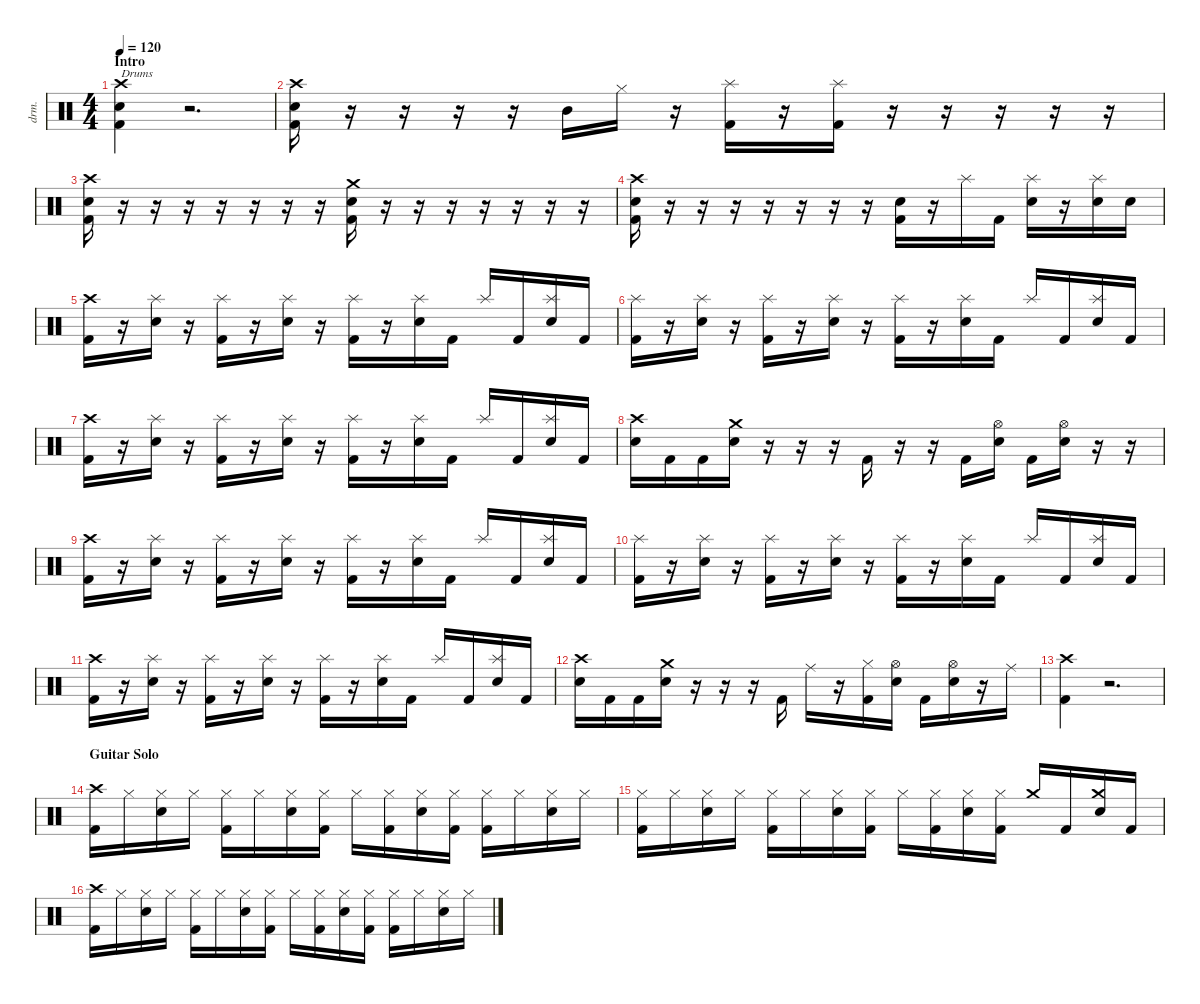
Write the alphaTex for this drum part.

\defaultSystemsLayout 4
\hideDynamics
\bracketExtendMode nobrackets
\track ("Drums" "drm.") {instrument percussion}
\staff {score}
\articulation defaults
\ts (4 4)
\section ("" "Intro")
\tempo 120
\clef neutral
\ks c
("Crash high (hit)" "Snare (hit) 2" "Kick (hit) 2").4{txt "Drums" dy f beam Down} r.2{d beam Down} |
("Crash high (hit)" "Snare (hit) 2" "Kick (hit) 2").16{dy fff beam Down} r.16{beam Down} r.16{beam Down} r.16{beam Down} r.16{beam Down} "Mid Tom (hit)".16{dy f beam Down} "Hi-Hat (closed)".16{dy fff beam Down} r.16{beam Down} ("Splash (hit)" "Kick (hit) 2").16{beam Down} r.16{beam Down} ("Splash (hit)" "Kick (hit) 2").16{beam Down} r.16{beam Down} r.16{beam Down} r.16{beam Down} r.16{beam Down} r.16{beam Down} |
("Crash high (hit)" "Snare (hit) 2" "Kick (hit) 2").16{beam Down} r.16{beam Down} r.16{beam Down} r.16{beam Down} r.16{beam Down} r.16{beam Down} r.16{beam Down} r.16{beam Down} ("Crash medium (hit)" "Snare (hit) 2" "Kick (hit) 2").16{beam Down} r.16{beam Down} r.16{beam Down} r.16{beam Down} r.16{beam Down} r.16{beam Down} r.16{beam Down} r.16{beam Down} |
("Crash high (hit)" "Snare (hit) 2" "Kick (hit) 2").16{dy f beam Down} r.16{beam Down} r.16{beam Down} r.16{beam Down} r.16{beam Down} r.16{beam Down} r.16{beam Down} r.16{beam Down} ("Snare (hit) 2" "Kick (hit) 2").16{beam Down} r.16{beam Down} "Splash (hit)".16{dy fff beam Down} "Kick (hit) 2".16{dy f beam Down} ("Splash (hit)" "Snare (hit) 2").16{dy fff beam Down} r.16{beam Down} ("Splash (hit)" "Snare (hit) 2").16{beam Down} "Snare (hit) 2".16{dy f beam Down} |
("Crash high (hit)" "Kick (hit) 2").16{dy fff beam Down} r.16{beam Down} ("Splash (hit)" "Snare (hit) 2").16{beam Down} r.16{beam Down} ("Splash (hit)" "Kick (hit) 2").16{beam Down} r.16{beam Down} ("Splash (hit)" "Snare (hit) 2").16{beam Down} r.16{beam Down} ("Splash (hit)" "Kick (hit) 2").16{beam Down} r.16{beam Down} ("Splash (hit)" "Snare (hit) 2").16{beam Down} "Kick (hit) 2".16{dy f beam Down} "Splash (hit)".16{dy fff beam Up} "Kick (hit) 2".16{dy f beam Up} ("Splash (hit)" "Snare (hit) 2").16{dy fff beam Up} "Kick (hit) 2".16{dy f beam Up} |
("Splash (hit)" "Kick (hit) 2").16{dy fff beam Down} r.16{beam Down} ("Splash (hit)" "Snare (hit) 2").16{beam Down} r.16{beam Down} ("Splash (hit)" "Kick (hit) 2").16{beam Down} r.16{beam Down} ("Splash (hit)" "Snare (hit) 2").16{beam Down} r.16{beam Down} ("Splash (hit)" "Kick (hit) 2").16{beam Down} r.16{beam Down} ("Splash (hit)" "Snare (hit) 2").16{beam Down} "Kick (hit) 2".16{dy f beam Down} "Splash (hit)".16{dy fff beam Up} "Kick (hit) 2".16{dy f beam Up} ("Splash (hit)" "Snare (hit) 2").16{dy fff beam Up} "Kick (hit) 2".16{dy f beam Up} |
("Crash high (hit)" "Kick (hit) 2").16{dy fff beam Down} r.16{beam Down} ("Splash (hit)" "Snare (hit) 2").16{beam Down} r.16{beam Down} ("Splash (hit)" "Kick (hit) 2").16{beam Down} r.16{beam Down} ("Splash (hit)" "Snare (hit) 2").16{beam Down} r.16{beam Down} ("Splash (hit)" "Kick (hit) 2").16{beam Down} r.16{beam Down} ("Splash (hit)" "Snare (hit) 2").16{beam Down} "Kick (hit) 2".16{dy f beam Down} "Splash (hit)".16{dy fff beam Up} "Kick (hit) 2".16{dy f beam Up} ("Splash (hit)" "Snare (hit) 2").16{dy fff beam Up} "Kick (hit) 2".16{dy f beam Up} |
("Crash high (hit)" "Snare (hit) 2").16{dy fff beam Down} "Kick (hit) 2".16{dy f beam Down} "Kick (hit) 2".16{beam Down} ("Crash medium (hit)" "Snare (hit) 2").16{dy fff beam Down} r.16{beam Down} r.16{beam Down} r.16{beam Down} "Kick (hit) 2".16{dy f beam Up} r.16{beam Down} r.16{beam Down} "Kick (hit) 2".16{beam Down} ("Hi-Hat (open)" "Snare (hit) 2").16{dy fff beam Down} "Kick (hit) 2".16{dy f beam Down} ("Hi-Hat (open)" "Snare (hit) 2").16{dy fff beam Down} r.16{beam Down} r.16{beam Down} |
("Crash high (hit)" "Kick (hit) 2").16{beam Down} r.16{beam Down} ("Splash (hit)" "Snare (hit) 2").16{beam Down} r.16{beam Down} ("Splash (hit)" "Kick (hit) 2").16{beam Down} r.16{beam Down} ("Splash (hit)" "Snare (hit) 2").16{beam Down} r.16{beam Down} ("Splash (hit)" "Kick (hit) 2").16{beam Down} r.16{beam Down} ("Splash (hit)" "Snare (hit) 2").16{beam Down} "Kick (hit) 2".16{dy f beam Down} "Splash (hit)".16{dy fff beam Up} "Kick (hit) 2".16{dy f beam Up} ("Splash (hit)" "Snare (hit) 2").16{dy fff beam Up} "Kick (hit) 2".16{dy f beam Up} |
("Splash (hit)" "Kick (hit) 2").16{dy fff beam Down} r.16{beam Down} ("Splash (hit)" "Snare (hit) 2").16{beam Down} r.16{beam Down} ("Splash (hit)" "Kick (hit) 2").16{beam Down} r.16{beam Down} ("Splash (hit)" "Snare (hit) 2").16{beam Down} r.16{beam Down} ("Splash (hit)" "Kick (hit) 2").16{beam Down} r.16{beam Down} ("Splash (hit)" "Snare (hit) 2").16{beam Down} "Kick (hit) 2".16{dy f beam Down} "Splash (hit)".16{dy fff beam Up} "Kick (hit) 2".16{dy f beam Up} ("Splash (hit)" "Snare (hit) 2").16{dy fff beam Up} "Kick (hit) 2".16{dy f beam Up} |
("Crash high (hit)" "Kick (hit) 2").16{dy fff beam Down} r.16{beam Down} ("Splash (hit)" "Snare (hit) 2").16{beam Down} r.16{beam Down} ("Splash (hit)" "Kick (hit) 2").16{beam Down} r.16{beam Down} ("Splash (hit)" "Snare (hit) 2").16{beam Down} r.16{beam Down} ("Splash (hit)" "Kick (hit) 2").16{beam Down} r.16{beam Down} ("Splash (hit)" "Snare (hit) 2").16{beam Down} "Kick (hit) 2".16{dy f beam Down} "Splash (hit)".16{dy fff beam Up} "Kick (hit) 2".16{dy f beam Up} ("Splash (hit)" "Snare (hit) 2").16{dy fff beam Up} "Kick (hit) 2".16{dy f beam Up} |
("Crash high (hit)" "Snare (hit) 2").16{dy fff beam Down} "Kick (hit) 2".16{dy f beam Down} "Kick (hit) 2".16{beam Down} ("Crash medium (hit)" "Snare (hit) 2").16{dy fff beam Down} r.16{beam Down} r.16{beam Down} r.16{beam Down} "Kick (hit) 2".16{dy f beam Up} "Ride (middle)".16{dy fff beam Down} r.16{beam Down} ("Hi-Hat (closed)" "Kick (hit) 2").16{beam Down} ("Hi-Hat (open)" "Snare (hit) 2").16{beam Down} "Kick (hit) 2".16{dy f beam Down} ("Hi-Hat (open)" "Snare (hit) 2").16{dy fff beam Down} r.16{beam Down} "Ride (middle)".16{beam Down} |
("Crash high (hit)" "Kick (hit) 2").4{beam Down} r.2{d beam Down} |
\section ("" "Guitar Solo")
("Crash high (hit)" "Kick (hit) 2").16{beam Down} "Hi-Hat (closed)".16{beam Down} ("Hi-Hat (closed)" "Snare (hit) 2").16{beam Down} "Hi-Hat (closed)".16{beam Down} ("Hi-Hat (closed)" "Kick (hit) 2").16{beam Down} "Hi-Hat (closed)".16{beam Down} ("Hi-Hat (closed)" "Snare (hit) 2").16{beam Down} ("Hi-Hat (closed)" "Kick (hit) 2").16{beam Down} "Hi-Hat (closed)".16{beam Down} ("Hi-Hat (closed)" "Kick (hit) 2").16{beam Down} ("Hi-Hat (closed)" "Snare (hit) 2").16{beam Down} ("Hi-Hat (closed)" "Kick (hit) 2").16{beam Down} ("Hi-Hat (closed)" "Kick (hit) 2").16{beam Down} "Hi-Hat (closed)".16{beam Down} ("Hi-Hat (closed)" "Snare (hit) 2").16{beam Down} "Hi-Hat (closed)".16{beam Down} |
("Hi-Hat (closed)" "Kick (hit) 2").16{beam Down} "Hi-Hat (closed)".16{beam Down} ("Hi-Hat (closed)" "Snare (hit) 2").16{beam Down} "Hi-Hat (closed)".16{beam Down} ("Hi-Hat (closed)" "Kick (hit) 2").16{beam Down} "Hi-Hat (closed)".16{beam Down} ("Hi-Hat (closed)" "Snare (hit) 2").16{beam Down} ("Hi-Hat (closed)" "Kick (hit) 2").16{beam Down} "Hi-Hat (closed)".16{beam Down} ("Hi-Hat (closed)" "Kick (hit) 2").16{beam Down} ("Hi-Hat (closed)" "Snare (hit) 2").16{beam Down} ("Hi-Hat (closed)" "Kick (hit) 2").16{beam Down} "Crash medium (hit)".16{beam Up} "Kick (hit) 2".16{dy f beam Up} ("Crash medium (hit)" "Snare (hit) 2").16{dy fff beam Up} "Kick (hit) 2".16{dy f beam Up} |
("Crash high (hit)" "Kick (hit) 2").16{dy fff beam Down} "Hi-Hat (closed)".16{beam Down} ("Hi-Hat (closed)" "Snare (hit) 2").16{beam Down} "Hi-Hat (closed)".16{beam Down} ("Hi-Hat (closed)" "Kick (hit) 2").16{beam Down} "Hi-Hat (closed)".16{beam Down} ("Hi-Hat (closed)" "Snare (hit) 2").16{beam Down} ("Hi-Hat (closed)" "Kick (hit) 2").16{beam Down} "Hi-Hat (closed)".16{beam Down} ("Hi-Hat (closed)" "Kick (hit) 2").16{beam Down} ("Hi-Hat (closed)" "Snare (hit) 2").16{beam Down} ("Hi-Hat (closed)" "Kick (hit) 2").16{beam Down} ("Hi-Hat (closed)" "Kick (hit) 2").16{beam Down} "Hi-Hat (closed)".16{beam Down} ("Hi-Hat (closed)" "Snare (hit) 2").16{beam Down} "Hi-Hat (closed)".16{beam Down}
